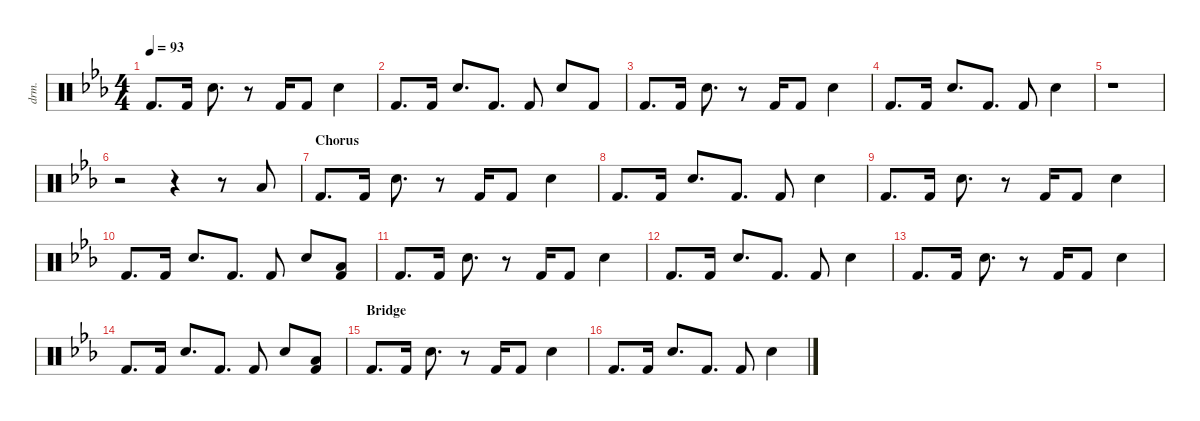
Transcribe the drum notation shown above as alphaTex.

\defaultSystemsLayout 4
\hideDynamics
\bracketExtendMode nobrackets
\otherSystemsTrackNameOrientation horizontal
\track ("Drumkit" "drm.") {instrument percussion}
\staff {score}
\articulation defaults
\ts (4 4)
\tempo 93
\clef neutral
\ks cminor "Kick (hit) 2"{acc forcenatural}.8{d dy mf} "Kick (hit) 2"{acc forcenatural}.16 "Snare (hit) 2"{acc forcenatural}.8{d}
r.8 "Kick (hit) 2"{acc forcenatural}.16 "Kick (hit) 2"{acc forcenatural}.8 "Snare (hit) 2"{acc forcenatural}.4 |
"Kick (hit) 2"{acc forcenatural}.8{d} "Kick (hit) 2"{acc forcenatural}.16 "Snare (hit) 2"{acc forcenatural}.8{d} "Kick (hit) 2"{acc forcenatural}.8{d} "Kick (hit) 2"{acc forcenatural}.8 "Snare (hit) 2"{acc forcenatural}.8 "Kick (hit) 2"{acc forcenatural}.8 |
"Kick (hit) 2"{acc forcenatural}.8{d} "Kick (hit) 2"{acc forcenatural}.16 "Snare (hit) 2"{acc forcenatural}.8{d} r.8 "Kick (hit) 2"{acc forcenatural}.16 "Kick (hit) 2"{acc forcenatural}.8 "Snare (hit) 2"{acc forcenatural}.4 |
"Kick (hit) 2"{acc forcenatural}.8{d} "Kick (hit) 2"{acc forcenatural}.16 "Snare (hit) 2"{acc forcenatural}.8{d} "Kick (hit) 2"{acc forcenatural}.8{d} "Kick (hit) 2"{acc forcenatural}.8 "Snare (hit) 2"{acc forcenatural}.4 |
r.1 |
r.2 r.4 r.8 "Low Tom (hit)"{acc forcenatural}.8 |
\section ("" "Chorus")
"Kick (hit) 2"{acc forcenatural}.8{d} "Kick (hit) 2"{acc forcenatural}.16 "Snare (hit) 2"{acc forcenatural}.8{d} r.8 "Kick (hit) 2"{acc forcenatural}.16 "Kick (hit) 2"{acc forcenatural}.8 "Snare (hit) 2"{acc forcenatural}.4 |
"Kick (hit) 2"{acc forcenatural}.8{d} "Kick (hit) 2"{acc forcenatural}.16 "Snare (hit) 2"{acc forcenatural}.8{d} "Kick (hit) 2"{acc forcenatural}.8{d} "Kick (hit) 2"{acc forcenatural}.8 "Snare (hit) 2"{acc forcenatural}.4 |
"Kick (hit) 2"{acc forcenatural}.8{d} "Kick (hit) 2"{acc forcenatural}.16 "Snare (hit) 2"{acc forcenatural}.8{d} r.8 "Kick (hit) 2"{acc forcenatural}.16 "Kick (hit) 2"{acc forcenatural}.8 "Snare (hit) 2"{acc forcenatural}.4 |
"Kick (hit) 2"{acc forcenatural}.8{d} "Kick (hit) 2"{acc forcenatural}.16 "Snare (hit) 2"{acc forcenatural}.8{d} "Kick (hit) 2"{acc forcenatural}.8{d} "Kick (hit) 2"{acc forcenatural}.8 "Snare (hit) 2"{acc forcenatural}.8 ("Low Tom (hit)"{acc forcenatural} "Kick (hit) 2"{acc forcenatural}).8 |
"Kick (hit) 2"{acc forcenatural}.8{d} "Kick (hit) 2"{acc forcenatural}.16 "Snare (hit) 2"{acc forcenatural}.8{d} r.8 "Kick (hit) 2"{acc forcenatural}.16 "Kick (hit) 2"{acc forcenatural}.8 "Snare (hit) 2"{acc forcenatural}.4 |
"Kick (hit) 2"{acc forcenatural}.8{d} "Kick (hit) 2"{acc forcenatural}.16 "Snare (hit) 2"{acc forcenatural}.8{d} "Kick (hit) 2"{acc forcenatural}.8{d} "Kick (hit) 2"{acc forcenatural}.8 "Snare (hit) 2"{acc forcenatural}.4 |
"Kick (hit) 2"{acc forcenatural}.8{d} "Kick (hit) 2"{acc forcenatural}.16 "Snare (hit) 2"{acc forcenatural}.8{d} r.8 "Kick (hit) 2"{acc forcenatural}.16 "Kick (hit) 2"{acc forcenatural}.8 "Snare (hit) 2"{acc forcenatural}.4 |
"Kick (hit) 2"{acc forcenatural}.8{d} "Kick (hit) 2"{acc forcenatural}.16 "Snare (hit) 2"{acc forcenatural}.8{d} "Kick (hit) 2"{acc forcenatural}.8{d} "Kick (hit) 2"{acc forcenatural}.8 "Snare (hit) 2"{acc forcenatural}.8 ("Low Tom (hit)"{acc forcenatural} "Kick (hit) 2"{acc forcenatural}).8 |
\section ("" "Bridge")
"Kick (hit) 2"{acc forcenatural}.8{d} "Kick (hit) 2"{acc forcenatural}.16 "Snare (hit) 2"{acc forcenatural}.8{d} r.8 "Kick (hit) 2"{acc forcenatural}.16 "Kick (hit) 2"{acc forcenatural}.8 "Snare (hit) 2"{acc forcenatural}.4 |
"Kick (hit) 2"{acc forcenatural}.8{d} "Kick (hit) 2"{acc forcenatural}.16 "Snare (hit) 2"{acc forcenatural}.8{d} "Kick (hit) 2"{acc forcenatural}.8{d} "Kick (hit) 2"{acc forcenatural}.8 "Snare (hit) 2"{acc forcenatural}.4
